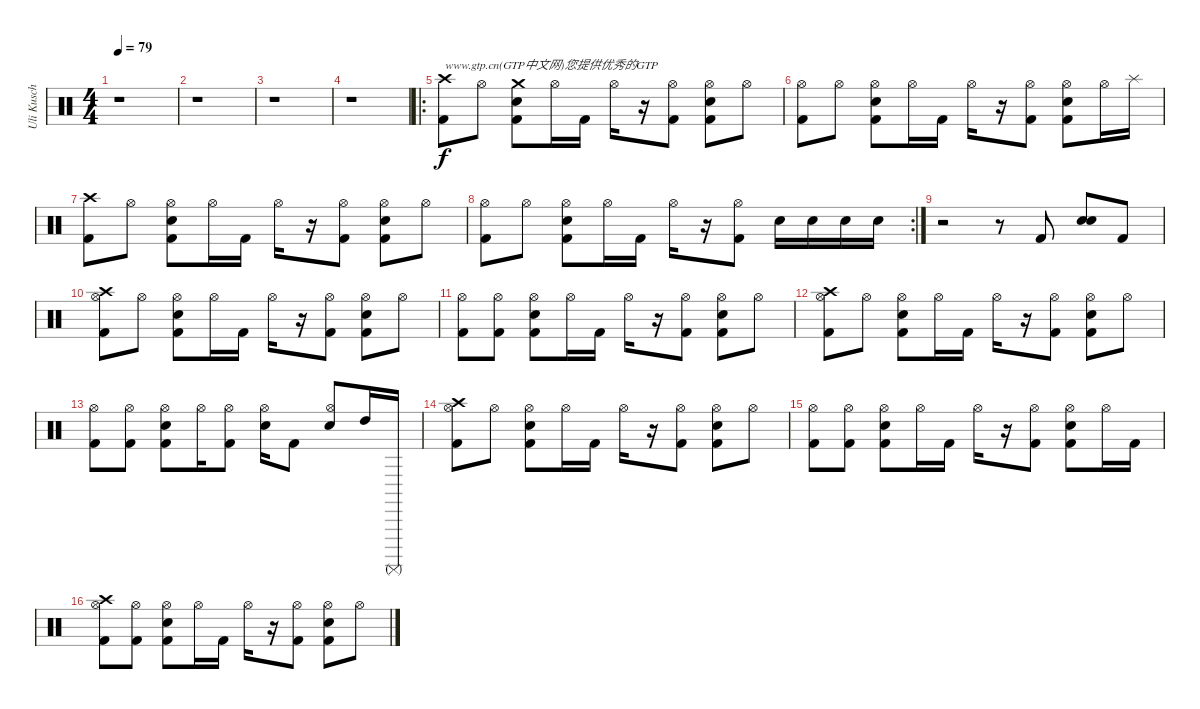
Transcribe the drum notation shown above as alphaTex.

\track ("Uli Kusch" "Uli Kusch") {instrument percussion}
\staff {score}
\articulation defaults
\ts (4 4)
\tempo 79
\clef neutral
\ks c
r.1{dy f} |
r.1 |
r.1 |
r.1 |
\ro
("Kick (hit) 2" "Crash high (hit)").8{txt "www.gtp.cn(GTP中文网)您提供优秀的GTP"} "Hi-Hat (open)".8 ("Snare (hit) 2" "Kick (hit) 2" "Crash medium (hit)").8 "Hi-Hat (open)".16 "Kick (hit) 2".16 "Hi-Hat (open)".16 r.16 ("Kick (hit) 2" "Hi-Hat (open)").8 ("Kick (hit) 2" "Hi-Hat (open)" "Snare (hit) 2").8 "Hi-Hat (open)".8 |
("Kick (hit) 2" "Hi-Hat (open)").8 "Hi-Hat (open)".8 ("Snare (hit) 2" "Kick (hit) 2" "Hi-Hat (open)").8 "Hi-Hat (open)".16 "Kick (hit) 2".16 "Hi-Hat (open)".16 r.16 ("Kick (hit) 2" "Hi-Hat (open)").8 ("Kick (hit) 2" "Snare (hit) 2" "Hi-Hat (open)").8 "Hi-Hat (open)".16 "Splash (hit)".16 |
("Kick (hit) 2" "Crash high (hit)").8 "Hi-Hat (open)".8 ("Snare (hit) 2" "Kick (hit) 2" "Hi-Hat (open)").8 "Hi-Hat (open)".16 "Kick (hit) 2".16 "Hi-Hat (open)".16 r.16 ("Kick (hit) 2" "Hi-Hat (open)").8 ("Kick (hit) 2" "Snare (hit) 2" "Hi-Hat (open)").8 "Hi-Hat (open)".8 |
\rc 2
("Kick (hit) 2" "Hi-Hat (open)").8 "Hi-Hat (open)".8 ("Snare (hit) 2" "Kick (hit) 2" "Hi-Hat (open)").8 "Hi-Hat (open)".16 "Kick (hit) 2".16 "Hi-Hat (open)".16 r.16 ("Kick (hit) 2" "Hi-Hat (open)").8 "Snare (hit) 2".16 "Snare (hit) 2".16 "Snare (hit) 2".16 "Snare (hit) 2".16 |
r.2 r.8 "Kick (hit) 2".8 ("Snare (hit) 2" "Snare (hit) 2").8{bd 60} "Kick (hit) 2".8 |
("Kick (hit) 2" "Hi-Hat (open)" "Crash high (hit)").8 "Hi-Hat (open)".8 ("Snare (hit) 2" "Kick (hit) 2" "Hi-Hat (open)").8 "Hi-Hat (open)".16 "Kick (hit) 2".16 "Hi-Hat (open)".16 r.16 ("Kick (hit) 2" "Hi-Hat (open)").8 ("Kick (hit) 2" "Snare (hit) 2" "Hi-Hat (open)").8 "Hi-Hat (open)".8 |
("Kick (hit) 2" "Hi-Hat (open)").8 ("Hi-Hat (open)" "Kick (hit) 2").8 ("Snare (hit) 2" "Kick (hit) 2" "Hi-Hat (open)").8 "Hi-Hat (open)".16 "Kick (hit) 2".16 "Hi-Hat (open)".16 r.16 ("Kick (hit) 2" "Hi-Hat (open)").8 ("Kick (hit) 2" "Snare (hit) 2" "Hi-Hat (open)").8 "Hi-Hat (open)".8 |
("Kick (hit) 2" "Hi-Hat (open)" "Crash high (hit)").8 "Hi-Hat (open)".8 ("Snare (hit) 2" "Kick (hit) 2" "Hi-Hat (open)").8 "Hi-Hat (open)".16 "Kick (hit) 2".16 "Hi-Hat (open)".16 r.16 ("Kick (hit) 2" "Hi-Hat (open)").8 ("Kick (hit) 2" "Snare (hit) 2" "Hi-Hat (open)").8 "Hi-Hat (open)".8 |
("Kick (hit) 2" "Hi-Hat (open)").8 ("Hi-Hat (open)" "Kick (hit) 2").8 ("Snare (hit) 2" "Kick (hit) 2" "Hi-Hat (open)").8 "Hi-Hat (open)".16 ("Kick (hit) 2" "Hi-Hat (open)").8 ("Snare (hit) 2" "Hi-Hat (open)").16 "Kick (hit) 2".8 ("Snare (hit) 2" "Hi-Hat (open)").8 "High Tom (hit)".16 "Surdo (mute)".16 |
("Kick (hit) 2" "Hi-Hat (open)" "Crash high (hit)").8 "Hi-Hat (open)".8 ("Snare (hit) 2" "Kick (hit) 2" "Hi-Hat (open)").8 "Hi-Hat (open)".16 "Kick (hit) 2".16 "Hi-Hat (open)".16 r.16 ("Kick (hit) 2" "Hi-Hat (open)").8 ("Kick (hit) 2" "Snare (hit) 2" "Hi-Hat (open)").8 "Hi-Hat (open)".8 |
("Kick (hit) 2" "Hi-Hat (open)").8 ("Hi-Hat (open)" "Kick (hit) 2").8 ("Snare (hit) 2" "Kick (hit) 2" "Hi-Hat (open)").8 "Hi-Hat (open)".16 "Kick (hit) 2".16 "Hi-Hat (open)".16 r.16 ("Kick (hit) 2" "Hi-Hat (open)").8 ("Kick (hit) 2" "Snare (hit) 2" "Hi-Hat (open)").8 "Hi-Hat (open)".16 "Kick (hit) 2".16 |
("Kick (hit) 2" "Hi-Hat (open)" "Crash high (hit)").8 ("Hi-Hat (open)" "Kick (hit) 2").8 ("Snare (hit) 2" "Kick (hit) 2" "Hi-Hat (open)").8 "Hi-Hat (open)".16 "Kick (hit) 2".16 "Hi-Hat (open)".16 r.16 ("Kick (hit) 2" "Hi-Hat (open)").8 ("Kick (hit) 2" "Snare (hit) 2" "Hi-Hat (open)").8 "Hi-Hat (open)".8
